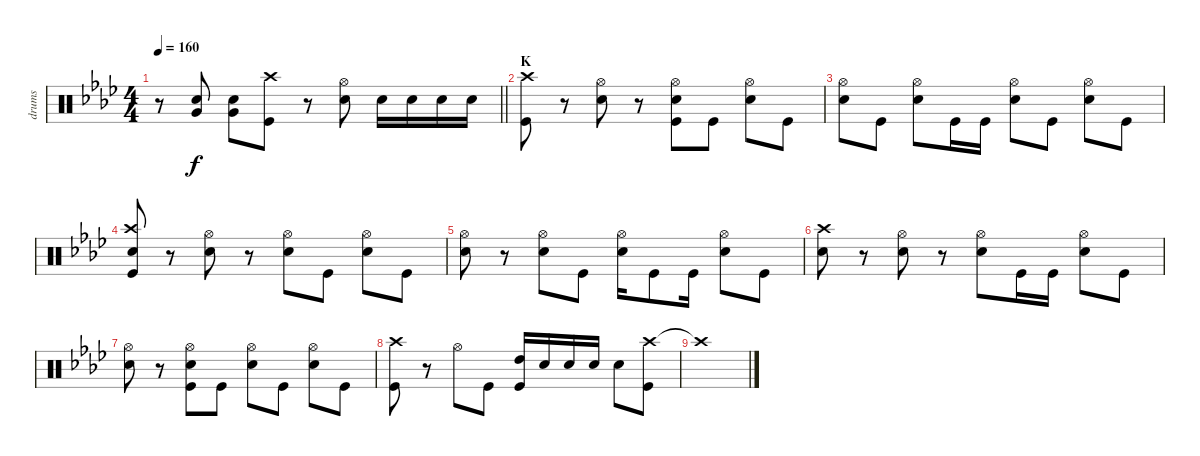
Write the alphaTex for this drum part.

\track ("drums" "drums") {instrument percussion}
\staff {score}
\articulation defaults
\ts (4 4)
\tempo 160
\clef neutral
\barLineRight lightlight
\ks ab
r.8{dy f} ("Snare (hit) 2" "Very Low Tom (hit)").8 ("Snare (hit) 2" "Very Low Tom (hit)").8 ("Crash high (hit)" "Kick (hit)").8 r.8 ("Hi-Hat (open)" "Snare (hit) 2").8 "Snare (hit) 2".16 "Snare (hit) 2".16 "Snare (hit) 2".16 "Snare (hit) 2".16 |
\section ("" "K")
("Crash high (hit)" "Kick (hit)").8 r.8 ("Hi-Hat (open)" "Snare (hit) 2").8 r.8 ("Hi-Hat (open)" "Snare (hit) 2" "Kick (hit)").8 "Kick (hit)".8 ("Hi-Hat (open)" "Snare (hit) 2").8 "Kick (hit)".8 |
("Hi-Hat (open)" "Snare (hit) 2").8 "Kick (hit)".8 ("Hi-Hat (open)" "Snare (hit) 2").8 "Kick (hit)".16 "Kick (hit)".16 ("Hi-Hat (open)" "Snare (hit) 2").8 "Kick (hit)".8 ("Hi-Hat (open)" "Snare (hit) 2").8 "Kick (hit)".8 |
("Crash high (hit)" "Snare (hit) 2" "Kick (hit)").8 r.8 ("Hi-Hat (open)" "Snare (hit) 2").8 r.8 ("Hi-Hat (open)" "Snare (hit) 2").8 "Kick (hit)".8 ("Hi-Hat (open)" "Snare (hit) 2").8 "Kick (hit)".8 |
("Hi-Hat (open)" "Snare (hit) 2").8 r.8 ("Hi-Hat (open)" "Snare (hit) 2").8 "Kick (hit)".8 ("Hi-Hat (open)" "Snare (hit) 2").16 "Kick (hit)".8 "Kick (hit)".16 ("Hi-Hat (open)" "Snare (hit) 2").8 "Kick (hit)".8 |
("Crash high (hit)" "Snare (hit) 2").8 r.8 ("Hi-Hat (open)" "Snare (hit) 2").8 r.8 ("Hi-Hat (open)" "Snare (hit) 2").8 "Kick (hit)".16 "Kick (hit)".16 ("Hi-Hat (open)" "Snare (hit) 2").8 "Kick (hit)".8 |
("Hi-Hat (open)" "Snare (hit) 2").8 r.8 ("Hi-Hat (open)" "Snare (hit) 2" "Kick (hit)").8 "Kick (hit)".8 ("Hi-Hat (open)" "Snare (hit) 2").8 "Kick (hit)".8 ("Hi-Hat (open)" "Snare (hit) 2").8 "Kick (hit)".8 |
("Crash high (hit)" "Kick (hit)").8 r.8 "Hi-Hat (open)".8 "Kick (hit)".8 ("High Tom (hit)" "Kick (hit)").16 "Snare (hit) 2".16 "Snare (hit) 2".16 "Snare (hit) 2".16 "Snare (hit) 2".8 ("Crash high (hit)" "Kick (hit)").8 |
"Crash high (hit)"{t}.1
